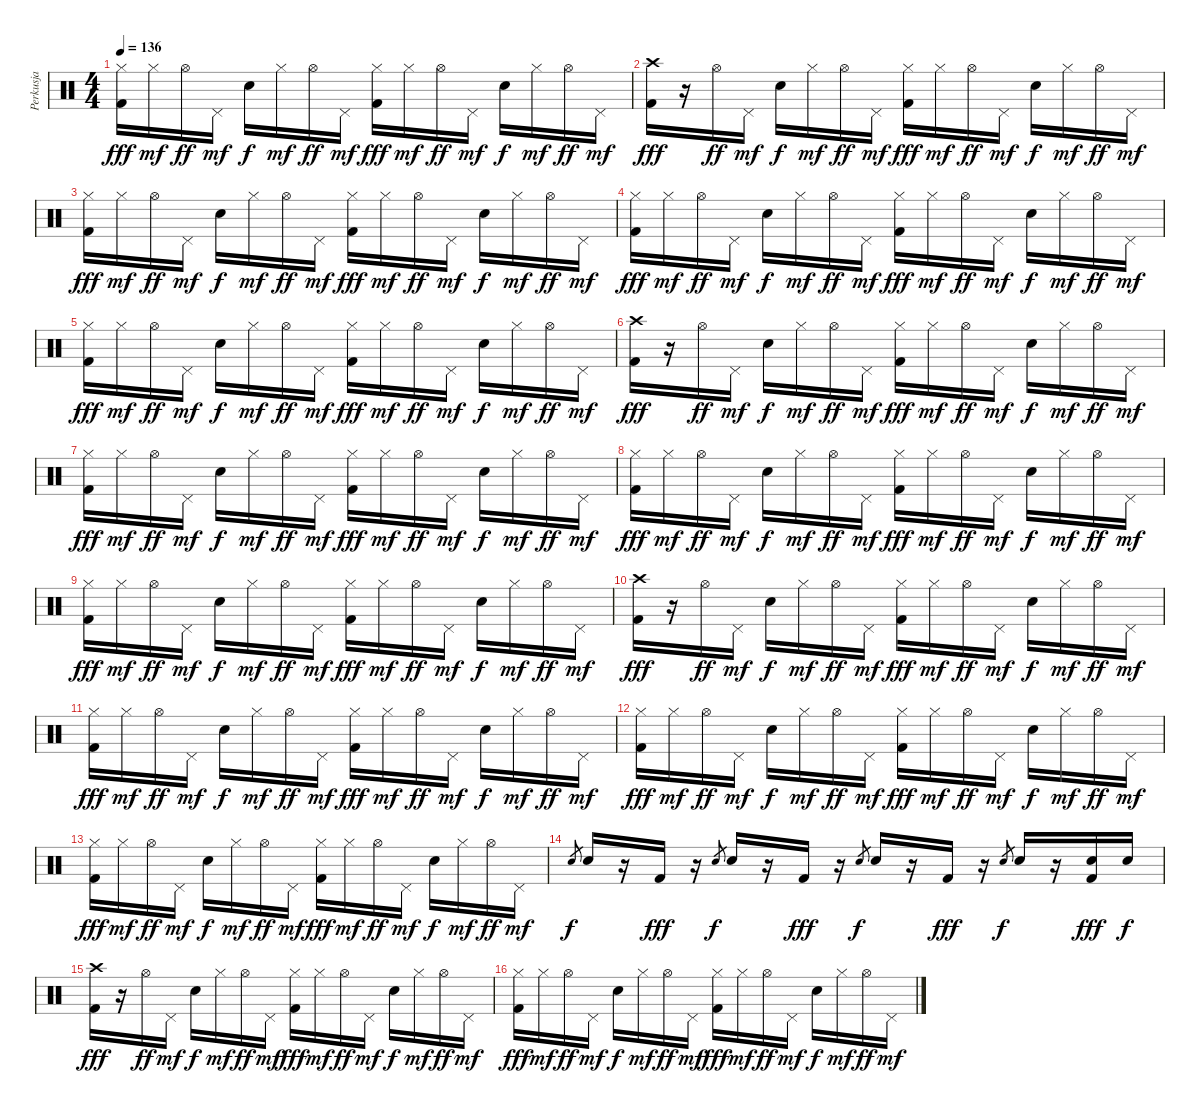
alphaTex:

\track ("Perkusja" "Perkusja") {instrument percussion}
\staff {score}
\articulation defaults
\ts (4 4)
\tempo 136
\clef neutral
\ks c
("Hi-Hat (closed)" "Kick (hit) 2").16{dy fff} "Hi-Hat (closed)".16{dy mf} "Hi-Hat (open)".16{dy ff} "Pedal Hi-Hat (hit)".16{dy mf} "Snare (hit) 2".16{dy f} "Hi-Hat (closed)".16{dy mf} "Hi-Hat (open)".16{dy ff} "Pedal Hi-Hat (hit)".16{dy mf} ("Hi-Hat (closed)" "Kick (hit) 2").16{dy fff} "Hi-Hat (closed)".16{dy mf} "Hi-Hat (open)".16{dy ff} "Pedal Hi-Hat (hit)".16{dy mf} "Snare (hit) 2".16{dy f} "Hi-Hat (closed)".16{dy mf} "Hi-Hat (open)".16{dy ff} "Pedal Hi-Hat (hit)".16{dy mf} |
("Crash high (hit)" "Kick (hit) 2").16{dy fff} r.16 "Hi-Hat (open)".16{dy ff} "Pedal Hi-Hat (hit)".16{dy mf} "Snare (hit) 2".16{dy f} "Hi-Hat (closed)".16{dy mf} "Hi-Hat (open)".16{dy ff} "Pedal Hi-Hat (hit)".16{dy mf} ("Hi-Hat (closed)" "Kick (hit) 2").16{dy fff} "Hi-Hat (closed)".16{dy mf} "Hi-Hat (open)".16{dy ff} "Pedal Hi-Hat (hit)".16{dy mf} "Snare (hit) 2".16{dy f} "Hi-Hat (closed)".16{dy mf} "Hi-Hat (open)".16{dy ff} "Pedal Hi-Hat (hit)".16{dy mf} |
("Hi-Hat (closed)" "Kick (hit) 2").16{dy fff} "Hi-Hat (closed)".16{dy mf} "Hi-Hat (open)".16{dy ff} "Pedal Hi-Hat (hit)".16{dy mf} "Snare (hit) 2".16{dy f} "Hi-Hat (closed)".16{dy mf} "Hi-Hat (open)".16{dy ff} "Pedal Hi-Hat (hit)".16{dy mf} ("Hi-Hat (closed)" "Kick (hit) 2").16{dy fff} "Hi-Hat (closed)".16{dy mf} "Hi-Hat (open)".16{dy ff} "Pedal Hi-Hat (hit)".16{dy mf} "Snare (hit) 2".16{dy f} "Hi-Hat (closed)".16{dy mf} "Hi-Hat (open)".16{dy ff} "Pedal Hi-Hat (hit)".16{dy mf} |
("Hi-Hat (closed)" "Kick (hit) 2").16{dy fff} "Hi-Hat (closed)".16{dy mf} "Hi-Hat (open)".16{dy ff} "Pedal Hi-Hat (hit)".16{dy mf} "Snare (hit) 2".16{dy f} "Hi-Hat (closed)".16{dy mf} "Hi-Hat (open)".16{dy ff} "Pedal Hi-Hat (hit)".16{dy mf} ("Hi-Hat (closed)" "Kick (hit) 2").16{dy fff} "Hi-Hat (closed)".16{dy mf} "Hi-Hat (open)".16{dy ff} "Pedal Hi-Hat (hit)".16{dy mf} "Snare (hit) 2".16{dy f} "Hi-Hat (closed)".16{dy mf} "Hi-Hat (open)".16{dy ff} "Pedal Hi-Hat (hit)".16{dy mf} |
("Hi-Hat (closed)" "Kick (hit) 2").16{dy fff} "Hi-Hat (closed)".16{dy mf} "Hi-Hat (open)".16{dy ff} "Pedal Hi-Hat (hit)".16{dy mf} "Snare (hit) 2".16{dy f} "Hi-Hat (closed)".16{dy mf} "Hi-Hat (open)".16{dy ff} "Pedal Hi-Hat (hit)".16{dy mf} ("Hi-Hat (closed)" "Kick (hit) 2").16{dy fff} "Hi-Hat (closed)".16{dy mf} "Hi-Hat (open)".16{dy ff} "Pedal Hi-Hat (hit)".16{dy mf} "Snare (hit) 2".16{dy f} "Hi-Hat (closed)".16{dy mf} "Hi-Hat (open)".16{dy ff} "Pedal Hi-Hat (hit)".16{dy mf} |
("Crash high (hit)" "Kick (hit) 2").16{dy fff} r.16 "Hi-Hat (open)".16{dy ff} "Pedal Hi-Hat (hit)".16{dy mf} "Snare (hit) 2".16{dy f} "Hi-Hat (closed)".16{dy mf} "Hi-Hat (open)".16{dy ff} "Pedal Hi-Hat (hit)".16{dy mf} ("Hi-Hat (closed)" "Kick (hit) 2").16{dy fff} "Hi-Hat (closed)".16{dy mf} "Hi-Hat (open)".16{dy ff} "Pedal Hi-Hat (hit)".16{dy mf} "Snare (hit) 2".16{dy f} "Hi-Hat (closed)".16{dy mf} "Hi-Hat (open)".16{dy ff} "Pedal Hi-Hat (hit)".16{dy mf} |
("Hi-Hat (closed)" "Kick (hit) 2").16{dy fff} "Hi-Hat (closed)".16{dy mf} "Hi-Hat (open)".16{dy ff} "Pedal Hi-Hat (hit)".16{dy mf} "Snare (hit) 2".16{dy f} "Hi-Hat (closed)".16{dy mf} "Hi-Hat (open)".16{dy ff} "Pedal Hi-Hat (hit)".16{dy mf} ("Hi-Hat (closed)" "Kick (hit) 2").16{dy fff} "Hi-Hat (closed)".16{dy mf} "Hi-Hat (open)".16{dy ff} "Pedal Hi-Hat (hit)".16{dy mf} "Snare (hit) 2".16{dy f} "Hi-Hat (closed)".16{dy mf} "Hi-Hat (open)".16{dy ff} "Pedal Hi-Hat (hit)".16{dy mf} |
("Hi-Hat (closed)" "Kick (hit) 2").16{dy fff} "Hi-Hat (closed)".16{dy mf} "Hi-Hat (open)".16{dy ff} "Pedal Hi-Hat (hit)".16{dy mf} "Snare (hit) 2".16{dy f} "Hi-Hat (closed)".16{dy mf} "Hi-Hat (open)".16{dy ff} "Pedal Hi-Hat (hit)".16{dy mf} ("Hi-Hat (closed)" "Kick (hit) 2").16{dy fff} "Hi-Hat (closed)".16{dy mf} "Hi-Hat (open)".16{dy ff} "Pedal Hi-Hat (hit)".16{dy mf} "Snare (hit) 2".16{dy f} "Hi-Hat (closed)".16{dy mf} "Hi-Hat (open)".16{dy ff} "Pedal Hi-Hat (hit)".16{dy mf} |
("Hi-Hat (closed)" "Kick (hit) 2").16{dy fff} "Hi-Hat (closed)".16{dy mf} "Hi-Hat (open)".16{dy ff} "Pedal Hi-Hat (hit)".16{dy mf} "Snare (hit) 2".16{dy f} "Hi-Hat (closed)".16{dy mf} "Hi-Hat (open)".16{dy ff} "Pedal Hi-Hat (hit)".16{dy mf} ("Hi-Hat (closed)" "Kick (hit) 2").16{dy fff} "Hi-Hat (closed)".16{dy mf} "Hi-Hat (open)".16{dy ff} "Pedal Hi-Hat (hit)".16{dy mf} "Snare (hit) 2".16{dy f} "Hi-Hat (closed)".16{dy mf} "Hi-Hat (open)".16{dy ff} "Pedal Hi-Hat (hit)".16{dy mf} |
("Crash high (hit)" "Kick (hit) 2").16{dy fff} r.16 "Hi-Hat (open)".16{dy ff} "Pedal Hi-Hat (hit)".16{dy mf} "Snare (hit) 2".16{dy f} "Hi-Hat (closed)".16{dy mf} "Hi-Hat (open)".16{dy ff} "Pedal Hi-Hat (hit)".16{dy mf} ("Hi-Hat (closed)" "Kick (hit) 2").16{dy fff} "Hi-Hat (closed)".16{dy mf} "Hi-Hat (open)".16{dy ff} "Pedal Hi-Hat (hit)".16{dy mf} "Snare (hit) 2".16{dy f} "Hi-Hat (closed)".16{dy mf} "Hi-Hat (open)".16{dy ff} "Pedal Hi-Hat (hit)".16{dy mf} |
("Hi-Hat (closed)" "Kick (hit) 2").16{dy fff} "Hi-Hat (closed)".16{dy mf} "Hi-Hat (open)".16{dy ff} "Pedal Hi-Hat (hit)".16{dy mf} "Snare (hit) 2".16{dy f} "Hi-Hat (closed)".16{dy mf} "Hi-Hat (open)".16{dy ff} "Pedal Hi-Hat (hit)".16{dy mf} ("Hi-Hat (closed)" "Kick (hit) 2").16{dy fff} "Hi-Hat (closed)".16{dy mf} "Hi-Hat (open)".16{dy ff} "Pedal Hi-Hat (hit)".16{dy mf} "Snare (hit) 2".16{dy f} "Hi-Hat (closed)".16{dy mf} "Hi-Hat (open)".16{dy ff} "Pedal Hi-Hat (hit)".16{dy mf} |
("Hi-Hat (closed)" "Kick (hit) 2").16{dy fff} "Hi-Hat (closed)".16{dy mf} "Hi-Hat (open)".16{dy ff} "Pedal Hi-Hat (hit)".16{dy mf} "Snare (hit) 2".16{dy f} "Hi-Hat (closed)".16{dy mf} "Hi-Hat (open)".16{dy ff} "Pedal Hi-Hat (hit)".16{dy mf} ("Hi-Hat (closed)" "Kick (hit) 2").16{dy fff} "Hi-Hat (closed)".16{dy mf} "Hi-Hat (open)".16{dy ff} "Pedal Hi-Hat (hit)".16{dy mf} "Snare (hit) 2".16{dy f} "Hi-Hat (closed)".16{dy mf} "Hi-Hat (open)".16{dy ff} "Pedal Hi-Hat (hit)".16{dy mf} |
("Hi-Hat (closed)" "Kick (hit) 2").16{dy fff} "Hi-Hat (closed)".16{dy mf} "Hi-Hat (open)".16{dy ff} "Pedal Hi-Hat (hit)".16{dy mf} "Snare (hit) 2".16{dy f} "Hi-Hat (closed)".16{dy mf} "Hi-Hat (open)".16{dy ff} "Pedal Hi-Hat (hit)".16{dy mf} ("Hi-Hat (closed)" "Kick (hit) 2").16{dy fff} "Hi-Hat (closed)".16{dy mf} "Hi-Hat (open)".16{dy ff} "Pedal Hi-Hat (hit)".16{dy mf} "Snare (hit) 2".16{dy f} "Hi-Hat (closed)".16{dy mf} "Hi-Hat (open)".16{dy ff} "Pedal Hi-Hat (hit)".16{dy mf} |
"Snare (hit) 2".8{gr dy f} "Snare (hit) 2".16 r.16 "Kick (hit) 2".16{dy fff} r.16 "Snare (hit) 2".8{gr dy f} "Snare (hit) 2".16 r.16 "Kick (hit) 2".16{dy fff} r.16 "Snare (hit) 2".8{gr dy f} "Snare (hit) 2".16 r.16 "Kick (hit) 2".16{dy fff} r.16 "Snare (hit) 2".8{gr dy f} "Snare (hit) 2".16 r.16 ("Snare (hit) 2" "Kick (hit) 2").16{dy fff} "Snare (hit) 2".16{dy f} |
("Crash high (hit)" "Kick (hit) 2").16{dy fff} r.16 "Hi-Hat (open)".16{dy ff} "Pedal Hi-Hat (hit)".16{dy mf} "Snare (hit) 2".16{dy f} "Hi-Hat (closed)".16{dy mf} "Hi-Hat (open)".16{dy ff} "Pedal Hi-Hat (hit)".16{dy mf} ("Hi-Hat (closed)" "Kick (hit) 2").16{dy fff} "Hi-Hat (closed)".16{dy mf} "Hi-Hat (open)".16{dy ff} "Pedal Hi-Hat (hit)".16{dy mf} "Snare (hit) 2".16{dy f} "Hi-Hat (closed)".16{dy mf} "Hi-Hat (open)".16{dy ff} "Pedal Hi-Hat (hit)".16{dy mf} |
("Hi-Hat (closed)" "Kick (hit) 2").16{dy fff} "Hi-Hat (closed)".16{dy mf} "Hi-Hat (open)".16{dy ff} "Pedal Hi-Hat (hit)".16{dy mf} "Snare (hit) 2".16{dy f} "Hi-Hat (closed)".16{dy mf} "Hi-Hat (open)".16{dy ff} "Pedal Hi-Hat (hit)".16{dy mf} ("Hi-Hat (closed)" "Kick (hit) 2").16{dy fff} "Hi-Hat (closed)".16{dy mf} "Hi-Hat (open)".16{dy ff} "Pedal Hi-Hat (hit)".16{dy mf} "Snare (hit) 2".16{dy f} "Hi-Hat (closed)".16{dy mf} "Hi-Hat (open)".16{dy ff} "Pedal Hi-Hat (hit)".16{dy mf}
